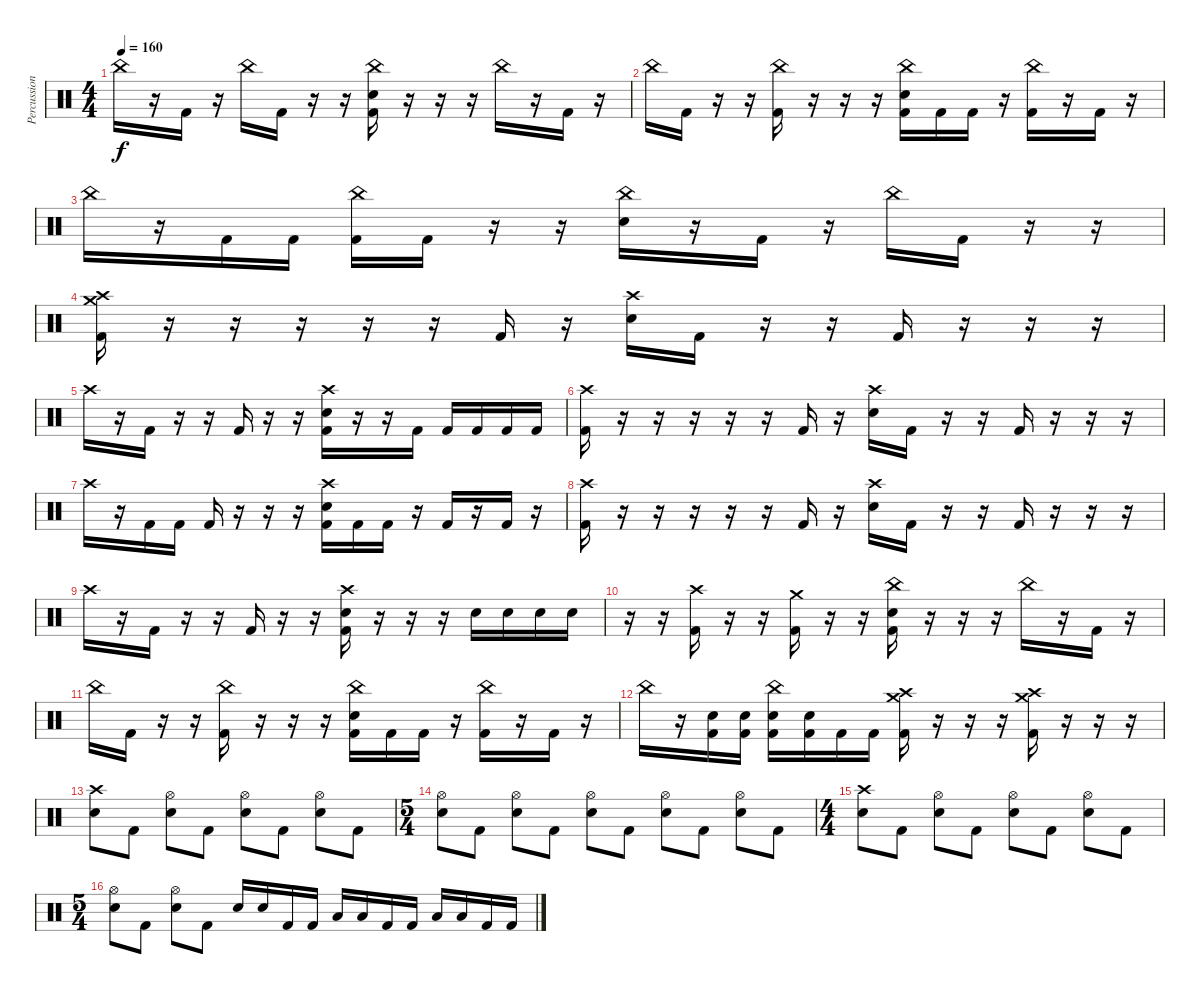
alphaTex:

\track ("Percussion" "Percussion") {instrument percussion}
\staff {score}
\articulation defaults
\ts (4 4)
\tempo 160
\clef neutral
\ks c "China (hit)".16{dy f}
r.16 "Kick (hit) 2".16 r.16 "China (hit)".16 "Kick (hit) 2".16 r.16 r.16 ("China (hit)" "Electric Snare (hit)" "Kick (hit) 2").16 r.16 r.16 r.16 "China (hit)".16 r.16 "Kick (hit) 2".16 r.16 |
"China (hit)".16 "Kick (hit) 2".16 r.16 r.16 ("China (hit)" "Kick (hit) 2").16 r.16 r.16 r.16 ("China (hit)" "Electric Snare (hit)" "Kick (hit) 2").16 "Kick (hit) 2".16 "Kick (hit) 2".16 r.16 ("China (hit)" "Kick (hit) 2").16 r.16 "Kick (hit) 2".16 r.16 |
"China (hit)".16 r.16 "Kick (hit) 2".16 "Kick (hit) 2".16 ("China (hit)" "Kick (hit) 2").16 "Kick (hit) 2".16 r.16 r.16 ("China (hit)" "Electric Snare (hit)").16 r.16 "Kick (hit) 2".16 r.16 "China (hit)".16 "Kick (hit) 2".16 r.16 r.16 |
("Crash medium (hit)" "Crash high (hit)" "Kick (hit) 2").16 r.16 r.16 r.16 r.16 r.16 "Kick (hit) 2".16 r.16 ("Crash high (hit)" "Electric Snare (hit)").16 "Kick (hit) 2".16 r.16 r.16 "Kick (hit) 2".16 r.16 r.16 r.16 |
"Crash high (hit)".16 r.16 "Kick (hit) 2".16 r.16 r.16 "Kick (hit) 2".16 r.16 r.16 ("Crash high (hit)" "Electric Snare (hit)" "Kick (hit) 2").16 r.16 r.16 "Kick (hit) 2".16 "Kick (hit) 2".16 "Kick (hit) 2".16 "Kick (hit) 2".16 "Kick (hit) 2".16 |
("Crash high (hit)" "Kick (hit) 2").16 r.16 r.16 r.16 r.16 r.16 "Kick (hit) 2".16 r.16 ("Crash high (hit)" "Electric Snare (hit)").16 "Kick (hit) 2".16 r.16 r.16 "Kick (hit) 2".16 r.16 r.16 r.16 |
"Crash high (hit)".16 r.16 "Kick (hit) 2".16 "Kick (hit) 2".16 "Kick (hit) 2".16 r.16 r.16 r.16 ("Crash high (hit)" "Electric Snare (hit)" "Kick (hit) 2").16 "Kick (hit) 2".16 "Kick (hit) 2".16 r.16 "Kick (hit) 2".16 r.16 "Kick (hit) 2".16 r.16 |
("Crash high (hit)" "Kick (hit) 2").16 r.16 r.16 r.16 r.16 r.16 "Kick (hit) 2".16 r.16 ("Crash high (hit)" "Electric Snare (hit)").16 "Kick (hit) 2".16 r.16 r.16 "Kick (hit) 2".16 r.16 r.16 r.16 |
"Crash high (hit)".16 r.16 "Kick (hit) 2".16 r.16 r.16 "Kick (hit) 2".16 r.16 r.16 ("Crash high (hit)" "Electric Snare (hit)" "Kick (hit) 2").16 r.16 r.16 r.16 "Electric Snare (hit)".16 "Electric Snare (hit)".16 "Electric Snare (hit)".16 "Electric Snare (hit)".16 |
r.16 r.16 ("Crash high (hit)" "Kick (hit) 2").16 r.16 r.16 ("Crash medium (hit)" "Kick (hit) 2").16 r.16 r.16 ("China (hit)" "Electric Snare (hit)" "Kick (hit) 2").16 r.16 r.16 r.16 "China (hit)".16 r.16 "Kick (hit) 2".16 r.16 |
"China (hit)".16 "Kick (hit) 2".16 r.16 r.16 ("China (hit)" "Kick (hit) 2").16 r.16 r.16 r.16 ("China (hit)" "Electric Snare (hit)" "Kick (hit) 2").16 "Kick (hit) 2".16 "Kick (hit) 2".16 r.16 ("China (hit)" "Kick (hit) 2").16 r.16 "Kick (hit) 2".16 r.16 |
"China (hit)".16 r.16 ("Electric Snare (hit)" "Kick (hit) 2").16 ("Electric Snare (hit)" "Kick (hit) 2").16 ("China (hit)" "Electric Snare (hit)" "Kick (hit) 2").16 ("Electric Snare (hit)" "Kick (hit) 2").16 "Kick (hit) 2".16 "Kick (hit) 2".16 ("Crash medium (hit)" "Crash high (hit)" "Kick (hit) 2").16 r.16 r.16 r.16 ("Crash medium (hit)" "Crash high (hit)" "Kick (hit) 2").16 r.16 r.16 r.16 |
("Crash high (hit)" "Electric Snare (hit)").8 "Kick (hit) 2".8 ("Hi-Hat (open)" "Electric Snare (hit)").8 "Kick (hit) 2".8 ("Hi-Hat (open)" "Electric Snare (hit)").8 "Kick (hit) 2".8 ("Hi-Hat (open)" "Electric Snare (hit)").8 "Kick (hit) 2".8 |
\ts (5 4)
("Hi-Hat (open)" "Electric Snare (hit)").8 "Kick (hit) 2".8 ("Hi-Hat (open)" "Electric Snare (hit)").8 "Kick (hit) 2".8 ("Hi-Hat (open)" "Electric Snare (hit)").8 "Kick (hit) 2".8 ("Hi-Hat (open)" "Electric Snare (hit)").8 "Kick (hit) 2".8 ("Hi-Hat (open)" "Electric Snare (hit)").8 "Kick (hit) 2".8 |
\ts (4 4)
("Crash high (hit)" "Electric Snare (hit)").8 "Kick (hit) 2".8 ("Hi-Hat (open)" "Electric Snare (hit)").8 "Kick (hit) 2".8 ("Hi-Hat (open)" "Electric Snare (hit)").8 "Kick (hit) 2".8 ("Hi-Hat (open)" "Electric Snare (hit)").8 "Kick (hit) 2".8 |
\ts (5 4)
("Hi-Hat (open)" "Electric Snare (hit)").8 "Kick (hit) 2".8 ("Hi-Hat (open)" "Electric Snare (hit)").8 "Kick (hit) 2".8 "Electric Snare (hit)".16 "Electric Snare (hit)".16 "Kick (hit) 2".16 "Kick (hit) 2".16 "Low Tom (hit)".16 "Low Tom (hit)".16 "Kick (hit) 2".16 "Kick (hit) 2".16 "Low Floor Tom (hit)".16 "Low Floor Tom (hit)".16 "Kick (hit) 2".16 "Kick (hit) 2".16
